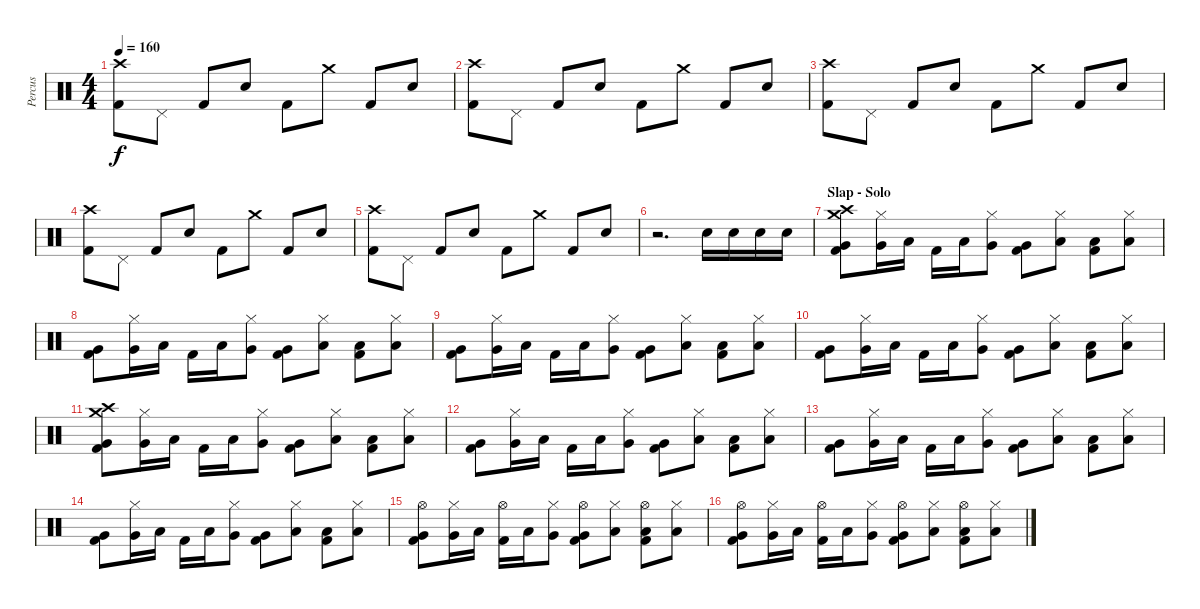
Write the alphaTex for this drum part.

\track ("Percus" "Percus") {instrument percussion}
\staff {score}
\articulation defaults
\ts (4 4)
\tempo 160
\clef neutral
\ks c
("Crash high (hit)" "Kick (hit) 2").8{dy f} "Pedal Hi-Hat (hit)".8 "Kick (hit) 2".8 "Electric Snare (hit)".8 "Kick (hit) 2".8 "Crash medium (hit)".8 "Kick (hit) 2".8 "Electric Snare (hit)".8 |
("Crash high (hit)" "Kick (hit) 2").8 "Pedal Hi-Hat (hit)".8 "Kick (hit) 2".8 "Electric Snare (hit)".8 "Kick (hit) 2".8 "Crash medium (hit)".8 "Kick (hit) 2".8 "Electric Snare (hit)".8 |
("Crash high (hit)" "Kick (hit) 2").8 "Pedal Hi-Hat (hit)".8 "Kick (hit) 2".8 "Electric Snare (hit)".8 "Kick (hit) 2".8 "Crash medium (hit)".8 "Kick (hit) 2".8 "Electric Snare (hit)".8 |
("Crash high (hit)" "Kick (hit) 2").8 "Pedal Hi-Hat (hit)".8 "Kick (hit) 2".8 "Electric Snare (hit)".8 "Kick (hit) 2".8 "Crash medium (hit)".8 "Kick (hit) 2".8 "Electric Snare (hit)".8 |
("Crash high (hit)" "Kick (hit) 2").8 "Pedal Hi-Hat (hit)".8 "Kick (hit) 2".8 "Electric Snare (hit)".8 "Kick (hit) 2".8 "Crash medium (hit)".8 "Kick (hit) 2".8 "Electric Snare (hit)".8 |
r.2{d} "Electric Snare (hit)".16 "Electric Snare (hit)".16 "Electric Snare (hit)".16 "Electric Snare (hit)".16 |
\section ("" "Slap - Solo")
("Crash high (hit)" "Crash medium (hit)" "Very Low Tom (hit)" "Kick (hit) 2").8 ("Hi-Hat (closed)" "Very Low Tom (hit)").16 "Low Tom (hit)".16 "Kick (hit) 2".16 "Low Tom (hit)".16 ("Hi-Hat (closed)" "Very Low Tom (hit)").8 ("Very Low Tom (hit)" "Kick (hit) 2").8 ("Hi-Hat (closed)" "Low Floor Tom (hit)").8 ("Low Tom (hit)" "Kick (hit) 2").8 ("Hi-Hat (closed)" "Low Tom (hit)").8 |
("Very Low Tom (hit)" "Kick (hit) 2").8 ("Hi-Hat (closed)" "Very Low Tom (hit)").16 "Low Tom (hit)".16 "Kick (hit) 2".16 "Low Tom (hit)".16 ("Hi-Hat (closed)" "Very Low Tom (hit)").8 ("Very Low Tom (hit)" "Kick (hit) 2").8 ("Hi-Hat (closed)" "Low Floor Tom (hit)").8 ("Low Tom (hit)" "Kick (hit) 2").8 ("Hi-Hat (closed)" "Low Tom (hit)").8 |
("Very Low Tom (hit)" "Kick (hit) 2").8 ("Hi-Hat (closed)" "Very Low Tom (hit)").16 "Low Tom (hit)".16 "Kick (hit) 2".16 "Low Tom (hit)".16 ("Hi-Hat (closed)" "Very Low Tom (hit)").8 ("Very Low Tom (hit)" "Kick (hit) 2").8 ("Hi-Hat (closed)" "Low Floor Tom (hit)").8 ("Low Tom (hit)" "Kick (hit) 2").8 ("Hi-Hat (closed)" "Low Tom (hit)").8 |
("Very Low Tom (hit)" "Kick (hit) 2").8 ("Hi-Hat (closed)" "Very Low Tom (hit)").16 "Low Tom (hit)".16 "Kick (hit) 2".16 "Low Tom (hit)".16 ("Hi-Hat (closed)" "Very Low Tom (hit)").8 ("Very Low Tom (hit)" "Kick (hit) 2").8 ("Hi-Hat (closed)" "Low Floor Tom (hit)").8 ("Low Tom (hit)" "Kick (hit) 2").8 ("Hi-Hat (closed)" "Low Tom (hit)").8 |
("Crash high (hit)" "Crash medium (hit)" "Very Low Tom (hit)" "Kick (hit) 2").8 ("Hi-Hat (closed)" "Very Low Tom (hit)").16 "Low Tom (hit)".16 "Kick (hit) 2".16 "Low Tom (hit)".16 ("Hi-Hat (closed)" "Very Low Tom (hit)").8 ("Very Low Tom (hit)" "Kick (hit) 2").8 ("Hi-Hat (closed)" "Low Floor Tom (hit)").8 ("Low Tom (hit)" "Kick (hit) 2").8 ("Hi-Hat (closed)" "Low Tom (hit)").8 |
("Very Low Tom (hit)" "Kick (hit) 2").8 ("Hi-Hat (closed)" "Very Low Tom (hit)").16 "Low Tom (hit)".16 "Kick (hit) 2".16 "Low Tom (hit)".16 ("Hi-Hat (closed)" "Very Low Tom (hit)").8 ("Very Low Tom (hit)" "Kick (hit) 2").8 ("Hi-Hat (closed)" "Low Floor Tom (hit)").8 ("Low Tom (hit)" "Kick (hit) 2").8 ("Hi-Hat (closed)" "Low Tom (hit)").8 |
("Very Low Tom (hit)" "Kick (hit) 2").8 ("Hi-Hat (closed)" "Very Low Tom (hit)").16 "Low Tom (hit)".16 "Kick (hit) 2".16 "Low Tom (hit)".16 ("Hi-Hat (closed)" "Very Low Tom (hit)").8 ("Very Low Tom (hit)" "Kick (hit) 2").8 ("Hi-Hat (closed)" "Low Floor Tom (hit)").8 ("Low Tom (hit)" "Kick (hit) 2").8 ("Hi-Hat (closed)" "Low Tom (hit)").8 |
("Very Low Tom (hit)" "Kick (hit) 2").8 ("Hi-Hat (closed)" "Very Low Tom (hit)").16 "Low Tom (hit)".16 "Kick (hit) 2".16 "Low Tom (hit)".16 ("Hi-Hat (closed)" "Very Low Tom (hit)").8 ("Very Low Tom (hit)" "Kick (hit) 2").8 ("Hi-Hat (closed)" "Low Floor Tom (hit)").8 ("Low Tom (hit)" "Kick (hit) 2").8 ("Hi-Hat (closed)" "Low Tom (hit)").8 |
("Hi-Hat (open)" "Very Low Tom (hit)" "Kick (hit) 2").8 ("Hi-Hat (closed)" "Very Low Tom (hit)").16 "Low Tom (hit)".16 ("Hi-Hat (open)" "Kick (hit) 2").16 "Low Tom (hit)".16 ("Hi-Hat (closed)" "Very Low Tom (hit)").8 ("Hi-Hat (open)" "Very Low Tom (hit)" "Kick (hit) 2").8 ("Hi-Hat (closed)" "Low Floor Tom (hit)").8 ("Hi-Hat (open)" "Low Tom (hit)" "Kick (hit) 2").8 ("Hi-Hat (closed)" "Low Tom (hit)").8 |
("Hi-Hat (open)" "Very Low Tom (hit)" "Kick (hit) 2").8 ("Hi-Hat (closed)" "Very Low Tom (hit)").16 "Low Tom (hit)".16 ("Hi-Hat (open)" "Kick (hit) 2").16 "Low Tom (hit)".16 ("Hi-Hat (closed)" "Very Low Tom (hit)").8 ("Hi-Hat (open)" "Very Low Tom (hit)" "Kick (hit) 2").8 ("Hi-Hat (closed)" "Low Floor Tom (hit)").8 ("Hi-Hat (open)" "Low Tom (hit)" "Kick (hit) 2").8 ("Hi-Hat (closed)" "Low Tom (hit)").8
